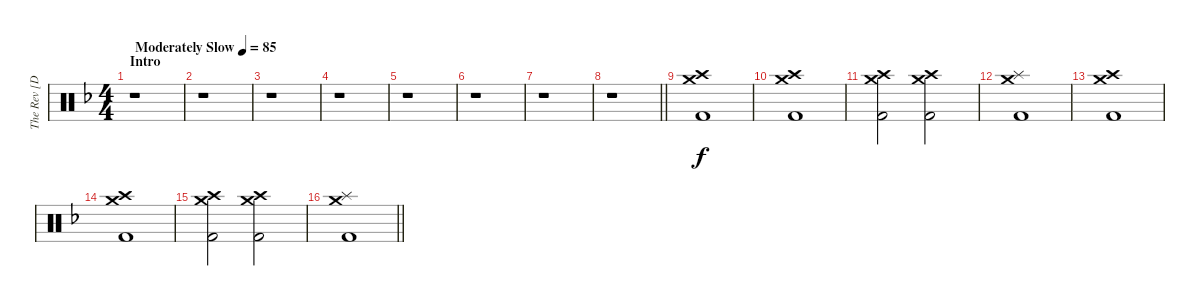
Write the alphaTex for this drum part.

\track ("The Rev [Drum]" "The Rev [D") {instrument percussion}
\staff {score}
\articulation defaults
\ts (4 4)
\section ("" "Intro")
\tempo (85 "Moderately Slow")
\clef neutral
\ks f
r.1{dy f} |
r.1 |
r.1 |
r.1 |
r.1 |
r.1 |
r.1 |
\barLineRight lightlight
r.1 |
\section ("" "")
("Crash medium (hit)" "Crash high (hit)" "Kick (hit) 2").1 |
("Crash medium (hit)" "Crash high (hit)" "Kick (hit) 2").1 |
("Crash medium (hit)" "Crash high (hit)" "Kick (hit) 2").2 ("Crash medium (hit)" "Crash high (hit)" "Kick (hit) 2").2 |
("Crash medium (hit)" "Splash (hit)" "Kick (hit) 2").1 |
("Crash medium (hit)" "Crash high (hit)" "Kick (hit) 2").1 |
("Crash medium (hit)" "Crash high (hit)" "Kick (hit) 2").1 |
("Crash medium (hit)" "Crash high (hit)" "Kick (hit) 2").2 ("Crash medium (hit)" "Crash high (hit)" "Kick (hit) 2").2 |
\barLineRight lightlight
("Crash medium (hit)" "Splash (hit)" "Kick (hit) 2").1
